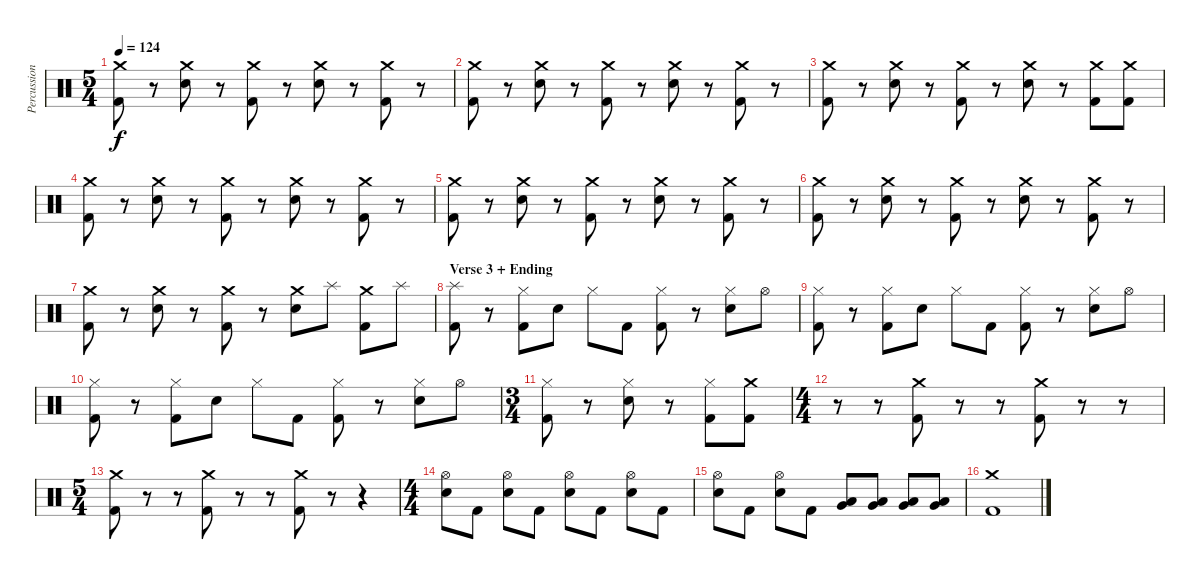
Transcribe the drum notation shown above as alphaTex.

\track ("Percussion" "Percussion") {instrument percussion}
\staff {score}
\articulation defaults
\ts (5 4)
\tempo 124
\clef neutral
\ks c
("Crash medium (hit)" "Kick (hit) 2").8{dy f} r.8 ("Crash medium (hit)" "Snare (hit) 2").8 r.8 ("Crash medium (hit)" "Kick (hit) 2").8 r.8 ("Crash medium (hit)" "Snare (hit) 2").8 r.8 ("Crash medium (hit)" "Kick (hit) 2").8 r.8 |
("Crash medium (hit)" "Kick (hit) 2").8 r.8 ("Crash medium (hit)" "Snare (hit) 2").8 r.8 ("Crash medium (hit)" "Kick (hit) 2").8 r.8 ("Crash medium (hit)" "Snare (hit) 2").8 r.8 ("Crash medium (hit)" "Kick (hit) 2").8 r.8 |
("Crash medium (hit)" "Kick (hit) 2").8 r.8 ("Crash medium (hit)" "Snare (hit) 2").8 r.8 ("Crash medium (hit)" "Kick (hit) 2").8 r.8 ("Crash medium (hit)" "Snare (hit) 2").8 r.8 ("Crash medium (hit)" "Kick (hit) 2").8 ("Crash medium (hit)" "Kick (hit) 2").8 |
("Crash medium (hit)" "Kick (hit) 2").8 r.8 ("Crash medium (hit)" "Snare (hit) 2").8 r.8 ("Crash medium (hit)" "Kick (hit) 2").8 r.8 ("Crash medium (hit)" "Snare (hit) 2").8 r.8 ("Crash medium (hit)" "Kick (hit) 2").8 r.8 |
("Crash medium (hit)" "Kick (hit) 2").8 r.8 ("Crash medium (hit)" "Snare (hit) 2").8 r.8 ("Crash medium (hit)" "Kick (hit) 2").8 r.8 ("Crash medium (hit)" "Snare (hit) 2").8 r.8 ("Crash medium (hit)" "Kick (hit) 2").8 r.8 |
("Crash medium (hit)" "Kick (hit) 2").8 r.8 ("Crash medium (hit)" "Snare (hit) 2").8 r.8 ("Crash medium (hit)" "Kick (hit) 2").8 r.8 ("Crash medium (hit)" "Snare (hit) 2").8 r.8 ("Crash medium (hit)" "Kick (hit) 2").8 r.8 |
("Crash medium (hit)" "Kick (hit) 2").8 r.8 ("Crash medium (hit)" "Snare (hit) 2").8 r.8 ("Crash medium (hit)" "Kick (hit) 2").8 r.8 ("Crash medium (hit)" "Snare (hit) 2").8 "Splash (hit)".8 ("Crash medium (hit)" "Kick (hit) 2").8 "Splash (hit)".8 |
\section ("" "Verse 3 + Ending")
("Splash (hit)" "Kick (hit) 2").8 r.8 ("Hi-Hat (closed)" "Kick (hit) 2").8 "Snare (hit) 2".8 "Hi-Hat (closed)".8 "Kick (hit) 2".8 ("Hi-Hat (closed)" "Kick (hit) 2").8 r.8 ("Hi-Hat (closed)" "Snare (hit) 2").8 "Hi-Hat (open)".8 |
("Hi-Hat (closed)" "Kick (hit) 2").8 r.8 ("Hi-Hat (closed)" "Kick (hit) 2").8 "Snare (hit) 2".8 "Hi-Hat (closed)".8 "Kick (hit) 2".8 ("Hi-Hat (closed)" "Kick (hit) 2").8 r.8 ("Hi-Hat (closed)" "Snare (hit) 2").8 "Hi-Hat (open)".8 |
("Hi-Hat (closed)" "Kick (hit) 2").8 r.8 ("Hi-Hat (closed)" "Kick (hit) 2").8 "Snare (hit) 2".8 "Hi-Hat (closed)".8 "Kick (hit) 2".8 ("Hi-Hat (closed)" "Kick (hit) 2").8 r.8 ("Hi-Hat (closed)" "Snare (hit) 2").8 "Hi-Hat (open)".8 |
\ts (3 4)
("Hi-Hat (closed)" "Kick (hit) 2").8 r.8 ("Hi-Hat (closed)" "Snare (hit) 2").8 r.8 ("Hi-Hat (closed)" "Kick (hit) 2").8 ("Crash medium (hit)" "Kick (hit) 2").8 |
\ts (4 4)
r.8 r.8 ("Crash medium (hit)" "Kick (hit) 2").8 r.8 r.8 ("Crash medium (hit)" "Kick (hit) 2").8 r.8 r.8 |
\ts (5 4)
("Crash medium (hit)" "Kick (hit) 2").8 r.8 r.8 ("Crash medium (hit)" "Kick (hit) 2").8 r.8 r.8 ("Crash medium (hit)" "Kick (hit) 2").8 r.8 r.4 |
\ts (4 4)
("Hi-Hat (open)" "Snare (hit) 2").8 "Kick (hit) 2".8 ("Hi-Hat (open)" "Snare (hit) 2").8 "Kick (hit) 2".8 ("Hi-Hat (open)" "Snare (hit) 2").8 "Kick (hit) 2".8 ("Hi-Hat (open)" "Snare (hit) 2").8 "Kick (hit) 2".8 |
("Hi-Hat (open)" "Snare (hit) 2").8 "Kick (hit) 2".8 ("Hi-Hat (open)" "Snare (hit) 2").8 "Kick (hit) 2".8 ("Low Tom (hit)" "Very Low Tom (hit)").8 ("Low Tom (hit)" "Very Low Tom (hit)").8 ("Low Tom (hit)" "Very Low Tom (hit)").8 ("Low Tom (hit)" "Very Low Tom (hit)").8 |
("Crash medium (hit)" "Kick (hit) 2").1
